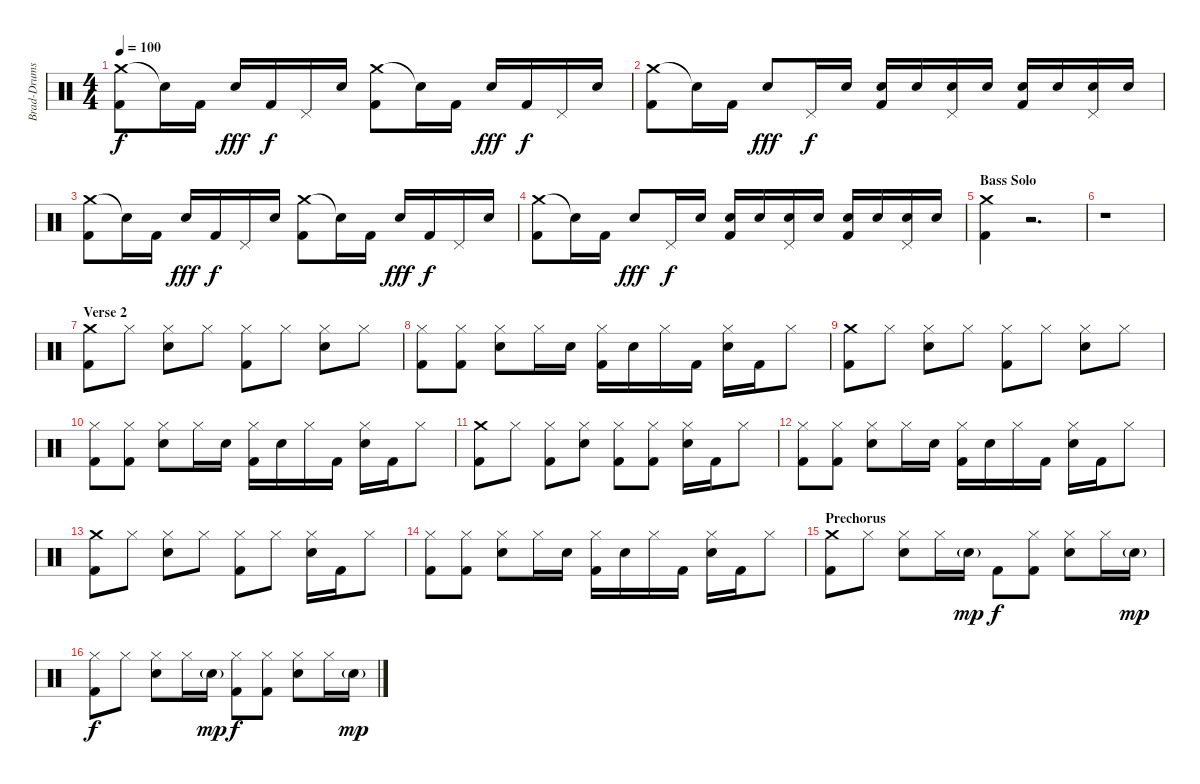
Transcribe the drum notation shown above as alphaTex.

\track ("Brad-Drums" "Brad-Drums") {instrument percussion}
\staff {score}
\articulation defaults
\ts (4 4)
\tempo 100
\clef neutral
\ks c
("Crash medium (hit)" "Kick (hit) 2").8{dy f} "Snare (hit)"{t}.16 "Kick (hit) 2".16 "Electric Snare (hit)".16{dy fff} "Kick (hit) 2".16{dy f} "Pedal Hi-Hat (hit)".16 "Electric Snare (hit)".16 ("Crash medium (hit)" "Kick (hit) 2").8 "Snare (hit)"{t}.16 "Kick (hit) 2".16 "Electric Snare (hit)".16{dy fff} "Kick (hit) 2".16{dy f} "Pedal Hi-Hat (hit)".16 "Electric Snare (hit)".16 |
("Crash medium (hit)" "Kick (hit) 2").8 "Snare (hit)"{t}.16 "Kick (hit) 2".16 "Electric Snare (hit)".8{dy fff} "Pedal Hi-Hat (hit)".16{dy f} "Electric Snare (hit)".16 ("Electric Snare (hit)" "Kick (hit) 2").16 "Electric Snare (hit)".16 ("Pedal Hi-Hat (hit)" "Electric Snare (hit)").16 "Electric Snare (hit)".16 ("Electric Snare (hit)" "Kick (hit) 2").16 "Electric Snare (hit)".16 ("Pedal Hi-Hat (hit)" "Electric Snare (hit)").16 "Electric Snare (hit)".16 |
("Crash medium (hit)" "Kick (hit) 2").8 "Snare (hit)"{t}.16 "Kick (hit) 2".16 "Electric Snare (hit)".16{dy fff} "Kick (hit) 2".16{dy f} "Pedal Hi-Hat (hit)".16 "Electric Snare (hit)".16 ("Crash medium (hit)" "Kick (hit) 2").8 "Snare (hit)"{t}.16 "Kick (hit) 2".16 "Electric Snare (hit)".16{dy fff} "Kick (hit) 2".16{dy f} "Pedal Hi-Hat (hit)".16 "Electric Snare (hit)".16 |
("Crash medium (hit)" "Kick (hit) 2").8 "Snare (hit)"{t}.16 "Kick (hit) 2".16 "Electric Snare (hit)".8{dy fff} "Pedal Hi-Hat (hit)".16{dy f} "Electric Snare (hit)".16 ("Electric Snare (hit)" "Kick (hit) 2").16 "Electric Snare (hit)".16 ("Pedal Hi-Hat (hit)" "Electric Snare (hit)").16 "Electric Snare (hit)".16 ("Electric Snare (hit)" "Kick (hit) 2").16 "Electric Snare (hit)".16 ("Pedal Hi-Hat (hit)" "Electric Snare (hit)").16 "Electric Snare (hit)".16 |
\section ("" "Bass Solo")
("Crash medium (hit)" "Kick (hit) 2").4 r.2{d} |
r.1 |
\section ("" "Verse 2")
("Crash medium (hit)" "Kick (hit) 2").8 "Hi-Hat (closed)".8 ("Hi-Hat (closed)" "Electric Snare (hit)").8 "Hi-Hat (closed)".8 ("Hi-Hat (closed)" "Kick (hit) 2").8 "Hi-Hat (closed)".8 ("Hi-Hat (closed)" "Electric Snare (hit)").8 "Hi-Hat (closed)".8 |
("Hi-Hat (closed)" "Kick (hit) 2").8 ("Hi-Hat (closed)" "Kick (hit) 2").8 ("Hi-Hat (closed)" "Electric Snare (hit)").8 "Hi-Hat (closed)".16 "Electric Snare (hit)".16 ("Hi-Hat (closed)" "Kick (hit) 2").16 "Electric Snare (hit)".16 "Hi-Hat (closed)".16 "Kick (hit) 2".16 ("Hi-Hat (closed)" "Electric Snare (hit)").16 "Kick (hit) 2".16 "Hi-Hat (closed)".8 |
("Crash medium (hit)" "Kick (hit) 2").8 "Hi-Hat (closed)".8 ("Hi-Hat (closed)" "Electric Snare (hit)").8 "Hi-Hat (closed)".8 ("Hi-Hat (closed)" "Kick (hit) 2").8 "Hi-Hat (closed)".8 ("Hi-Hat (closed)" "Electric Snare (hit)").8 "Hi-Hat (closed)".8 |
("Hi-Hat (closed)" "Kick (hit) 2").8 ("Hi-Hat (closed)" "Kick (hit) 2").8 ("Hi-Hat (closed)" "Electric Snare (hit)").8 "Hi-Hat (closed)".16 "Electric Snare (hit)".16 ("Hi-Hat (closed)" "Kick (hit) 2").16 "Electric Snare (hit)".16 "Hi-Hat (closed)".16 "Kick (hit) 2".16 ("Hi-Hat (closed)" "Electric Snare (hit)").16 "Kick (hit) 2".16 "Hi-Hat (closed)".8 |
("Crash medium (hit)" "Kick (hit) 2").8 "Hi-Hat (closed)".8 ("Hi-Hat (closed)" "Kick (hit) 2").8 ("Hi-Hat (closed)" "Electric Snare (hit)").8 ("Hi-Hat (closed)" "Kick (hit) 2").8 ("Hi-Hat (closed)" "Kick (hit) 2").8 ("Hi-Hat (closed)" "Electric Snare (hit)").16 "Kick (hit) 2".16 "Hi-Hat (closed)".8 |
("Hi-Hat (closed)" "Kick (hit) 2").8 ("Hi-Hat (closed)" "Kick (hit) 2").8 ("Hi-Hat (closed)" "Electric Snare (hit)").8 "Hi-Hat (closed)".16 "Electric Snare (hit)".16 ("Hi-Hat (closed)" "Kick (hit) 2").16 "Electric Snare (hit)".16 "Hi-Hat (closed)".16 "Kick (hit) 2".16 ("Hi-Hat (closed)" "Electric Snare (hit)").16 "Kick (hit) 2".16 "Hi-Hat (closed)".8 |
("Crash medium (hit)" "Kick (hit) 2").8 "Hi-Hat (closed)".8 ("Hi-Hat (closed)" "Electric Snare (hit)").8 "Hi-Hat (closed)".8 ("Hi-Hat (closed)" "Kick (hit) 2").8 "Hi-Hat (closed)".8 ("Hi-Hat (closed)" "Electric Snare (hit)").16 "Kick (hit) 2".16 "Hi-Hat (closed)".8 |
("Hi-Hat (closed)" "Kick (hit) 2").8 ("Hi-Hat (closed)" "Kick (hit) 2").8 ("Hi-Hat (closed)" "Electric Snare (hit)").8 "Hi-Hat (closed)".16 "Electric Snare (hit)".16 ("Hi-Hat (closed)" "Kick (hit) 2").16 "Electric Snare (hit)".16 "Hi-Hat (closed)".16 "Kick (hit) 2".16 ("Hi-Hat (closed)" "Electric Snare (hit)").16 "Kick (hit) 2".16 "Hi-Hat (closed)".8 |
\section ("" "Prechorus")
("Crash medium (hit)" "Kick (hit) 2").8 "Hi-Hat (closed)".8 ("Hi-Hat (closed)" "Electric Snare (hit)").8 "Hi-Hat (closed)".16 "Electric Snare (hit)"{g}.16{dy mp} "Kick (hit) 2".8{dy f} ("Hi-Hat (closed)" "Kick (hit) 2").8 ("Hi-Hat (closed)" "Electric Snare (hit)").8 "Hi-Hat (closed)".16 "Electric Snare (hit)"{g}.16{dy mp} |
("Hi-Hat (closed)" "Kick (hit) 2").8{dy f} "Hi-Hat (closed)".8 ("Hi-Hat (closed)" "Electric Snare (hit)").8 "Hi-Hat (closed)".16 "Electric Snare (hit)"{g}.16{dy mp} ("Hi-Hat (closed)" "Kick (hit) 2").8{dy f} ("Hi-Hat (closed)" "Kick (hit) 2").8 ("Hi-Hat (closed)" "Electric Snare (hit)").8 "Hi-Hat (closed)".16 "Electric Snare (hit)"{g}.16{dy mp}
